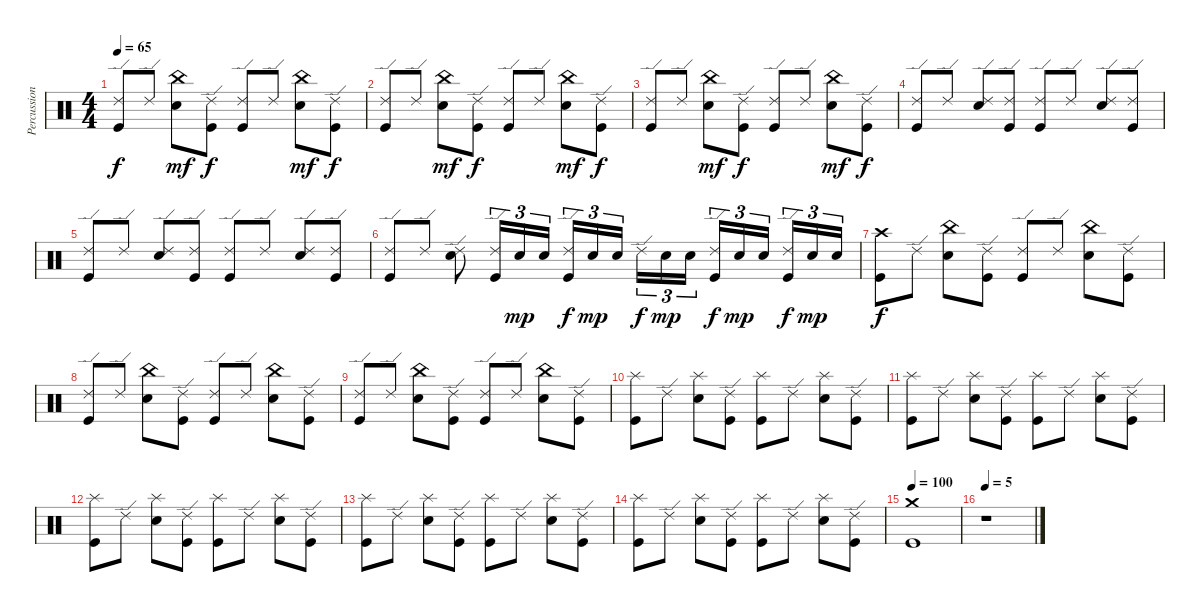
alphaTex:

\track ("Percussion" "Percussion") {instrument percussion}
\staff {score}
\articulation defaults
\ts (4 4)
\tempo 65
\clef neutral
\ks c
("Ride (edge) 2" "Kick (hit)").8{dy f} "Ride (edge) 2".8 ("China (hit)" "Electric Snare (hit)").8{dy mf} ("Ride (edge) 2" "Kick (hit)").8{dy f} ("Ride (edge) 2" "Kick (hit)").8 "Ride (edge) 2".8 ("China (hit)" "Electric Snare (hit)").8{dy mf} ("Ride (edge) 2" "Kick (hit)").8{dy f} |
("Ride (edge) 2" "Kick (hit)").8 "Ride (edge) 2".8 ("China (hit)" "Electric Snare (hit)").8{dy mf} ("Ride (edge) 2" "Kick (hit)").8{dy f} ("Ride (edge) 2" "Kick (hit)").8 "Ride (edge) 2".8 ("China (hit)" "Electric Snare (hit)").8{dy mf} ("Ride (edge) 2" "Kick (hit)").8{dy f} |
("Ride (edge) 2" "Kick (hit)").8 "Ride (edge) 2".8 ("China (hit)" "Electric Snare (hit)").8{dy mf} ("Ride (edge) 2" "Kick (hit)").8{dy f} ("Ride (edge) 2" "Kick (hit)").8 "Ride (edge) 2".8 ("China (hit)" "Electric Snare (hit)").8{dy mf} ("Ride (edge) 2" "Kick (hit)").8{dy f} |
("Ride (edge) 2" "Kick (hit)").8 "Ride (edge) 2".8 ("Ride (edge) 2" "Electric Snare (hit)").8 ("Ride (edge) 2" "Kick (hit)").8 ("Ride (edge) 2" "Kick (hit)").8 "Ride (edge) 2".8 ("Ride (edge) 2" "Electric Snare (hit)").8 ("Ride (edge) 2" "Kick (hit)").8 |
("Ride (edge) 2" "Kick (hit)").8 "Ride (edge) 2".8 ("Ride (edge) 2" "Electric Snare (hit)").8 ("Ride (edge) 2" "Kick (hit)").8 ("Ride (edge) 2" "Kick (hit)").8 "Ride (edge) 2".8 ("Ride (edge) 2" "Electric Snare (hit)").8 ("Ride (edge) 2" "Kick (hit)").8 |
("Ride (edge) 2" "Kick (hit)").8 "Ride (edge) 2".8 ("Ride (edge) 2" "Electric Snare (hit)").8 ("Ride (edge) 2" "Kick (hit)").16{tu (3 2)} "Electric Snare (hit)".16{tu (3 2) dy mp} "Electric Snare (hit)".16{tu (3 2)} ("Ride (edge) 2" "Kick (hit)").16{tu (3 2) dy f} "Electric Snare (hit)".16{tu (3 2) dy mp} "Electric Snare (hit)".16{tu (3 2)} "Ride (edge) 2".16{tu (3 2) dy f} "Electric Snare (hit)".16{tu (3 2) dy mp} "Electric Snare (hit)".16{tu (3 2)} ("Ride (edge) 2" "Kick (hit)").16{tu (3 2) dy f} "Electric Snare (hit)".16{tu (3 2) dy mp} "Electric Snare (hit)".16{tu (3 2)} ("Ride (edge) 2" "Kick (hit)").16{tu (3 2) dy f} "Electric Snare (hit)".16{tu (3 2) dy mp} "Electric Snare (hit)".16{tu (3 2)} |
("Crash high (hit)" "Kick (hit)").8{dy f} "Ride (edge) 2".8 ("China (hit)" "Electric Snare (hit)").8 ("Ride (edge) 2" "Kick (hit)").8 ("Ride (edge) 2" "Kick (hit)").8 "Ride (edge) 2".8 ("China (hit)" "Electric Snare (hit)").8 ("Ride (edge) 2" "Kick (hit)").8 |
("Ride (edge) 2" "Kick (hit)").8 "Ride (edge) 2".8 ("China (hit)" "Electric Snare (hit)").8 ("Ride (edge) 2" "Kick (hit)").8 ("Ride (edge) 2" "Kick (hit)").8 "Ride (edge) 2".8 ("China (hit)" "Electric Snare (hit)").8 ("Ride (edge) 2" "Kick (hit)").8 |
("Ride (edge) 2" "Kick (hit)").8 "Ride (edge) 2".8 ("China (hit)" "Electric Snare (hit)").8 ("Ride (edge) 2" "Kick (hit)").8 ("Ride (edge) 2" "Kick (hit)").8 "Ride (edge) 2".8 ("China (hit)" "Electric Snare (hit)").8 ("Ride (edge) 2" "Kick (hit)").8 |
("Splash (hit)" "Kick (hit)").8 "Ride (edge) 2".8 ("Splash (hit)" "Electric Snare (hit)").8 ("Ride (edge) 2" "Kick (hit)").8 ("Splash (hit)" "Kick (hit)").8 "Ride (edge) 2".8 ("Splash (hit)" "Electric Snare (hit)").8 ("Ride (edge) 2" "Kick (hit)").8 |
("Splash (hit)" "Kick (hit)").8 "Ride (edge) 2".8 ("Splash (hit)" "Electric Snare (hit)").8 ("Ride (edge) 2" "Kick (hit)").8 ("Splash (hit)" "Kick (hit)").8 "Ride (edge) 2".8 ("Splash (hit)" "Electric Snare (hit)").8 ("Ride (edge) 2" "Kick (hit)").8 |
("Splash (hit)" "Kick (hit)").8 "Ride (edge) 2".8 ("Splash (hit)" "Electric Snare (hit)").8 ("Ride (edge) 2" "Kick (hit)").8 ("Splash (hit)" "Kick (hit)").8 "Ride (edge) 2".8 ("Splash (hit)" "Electric Snare (hit)").8 ("Ride (edge) 2" "Kick (hit)").8 |
("Splash (hit)" "Kick (hit)").8 "Ride (edge) 2".8 ("Splash (hit)" "Electric Snare (hit)").8 ("Ride (edge) 2" "Kick (hit)").8 ("Splash (hit)" "Kick (hit)").8 "Ride (edge) 2".8 ("Splash (hit)" "Electric Snare (hit)").8 ("Ride (edge) 2" "Kick (hit)").8 |
("Splash (hit)" "Kick (hit)").8 "Ride (edge) 2".8 ("Splash (hit)" "Electric Snare (hit)").8 ("Ride (edge) 2" "Kick (hit)").8 ("Splash (hit)" "Kick (hit)").8 "Ride (edge) 2".8 ("Splash (hit)" "Electric Snare (hit)").8 ("Ride (edge) 2" "Kick (hit)").8 |
\tempo 100
("Crash medium (hit)" "Kick (hit)").1 |
\tempo 5
r.1
